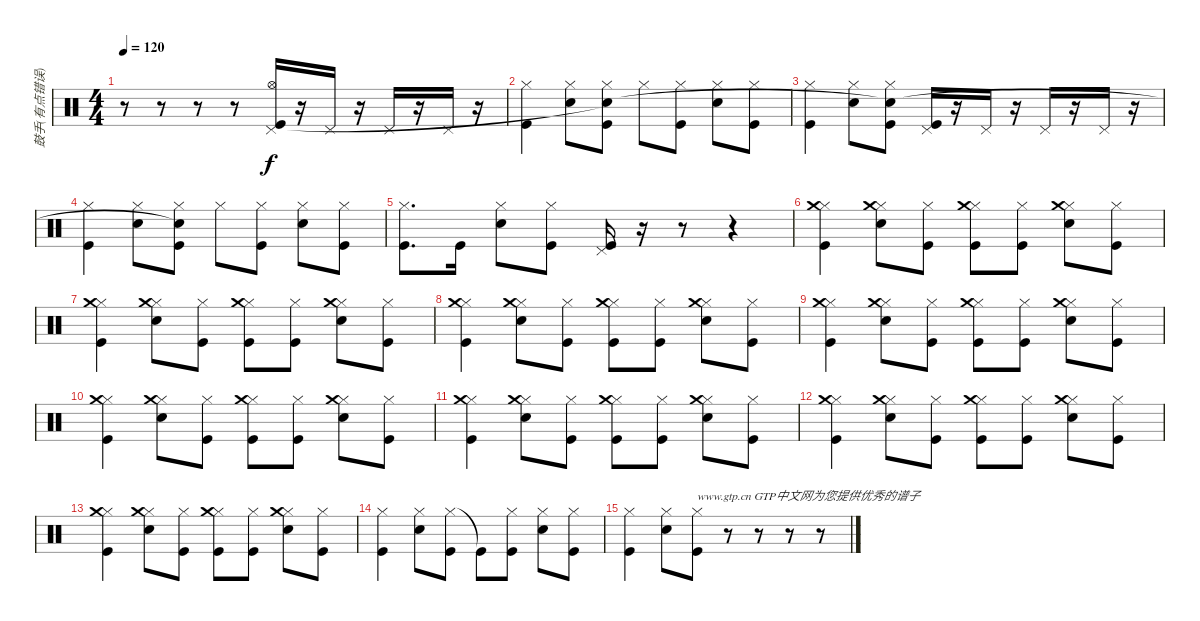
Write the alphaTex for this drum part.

\track ("鼓手(有点错误)" "鼓手(有点错误)") {instrument percussion}
\staff {score}
\articulation defaults
\ts (4 4)
\tempo 120
\clef neutral
\ks c
r.8{dy f} r.8 r.8 r.8 ("Pedal Hi-Hat (hit)" "Hi-Hat (open)" "Kick (hit)").16 r.16 "Pedal Hi-Hat (hit)".16 r.16 "Pedal Hi-Hat (hit)".16 r.16 "Pedal Hi-Hat (hit)".16 r.16 |
("Hi-Hat (closed)" "Kick (hit)").4 ("Hi-Hat (closed)" "Electric Snare (hit)").8 ("Hi-Hat (closed)" "Kick (hit)" "Snare (hit)"{t}).8 "Hi-Hat (closed)".8 ("Hi-Hat (closed)" "Kick (hit)").8 ("Hi-Hat (closed)" "Electric Snare (hit)").8 ("Hi-Hat (closed)" "Kick (hit)").8 |
("Hi-Hat (closed)" "Kick (hit)").4 ("Hi-Hat (closed)" "Electric Snare (hit)").8 ("Hi-Hat (closed)" "Kick (hit)" "Snare (hit)"{t}).8 ("Pedal Hi-Hat (hit)" "Kick (hit)").16 r.16 "Pedal Hi-Hat (hit)".16 r.16 "Pedal Hi-Hat (hit)".16 r.16 "Pedal Hi-Hat (hit)".16 r.16 |
("Hi-Hat (closed)" "Kick (hit)").4 ("Hi-Hat (closed)" "Electric Snare (hit)").8 ("Hi-Hat (closed)" "Kick (hit)" "Snare (hit)"{t}).8 "Hi-Hat (closed)".8 ("Hi-Hat (closed)" "Kick (hit)").8 ("Hi-Hat (closed)" "Electric Snare (hit)").8 ("Hi-Hat (closed)" "Kick (hit)").8 |
("Hi-Hat (closed)" "Kick (hit)").8{d} "Kick (hit)".16 ("Hi-Hat (closed)" "Electric Snare (hit)").8 ("Hi-Hat (closed)" "Kick (hit)").8 ("Pedal Hi-Hat (hit)" "Kick (hit)").16 r.16 r.8 r.4 |
("Hi-Hat (closed)" "Crash medium (hit)" "Kick (hit)").4 ("Hi-Hat (closed)" "Crash medium (hit)" "Electric Snare (hit)").8 ("Hi-Hat (closed)" "Kick (hit)").8 ("Hi-Hat (closed)" "Crash medium (hit)" "Kick (hit)").8 ("Hi-Hat (closed)" "Kick (hit)").8 ("Hi-Hat (closed)" "Crash medium (hit)" "Electric Snare (hit)").8 ("Hi-Hat (closed)" "Kick (hit)").8 |
("Hi-Hat (closed)" "Crash medium (hit)" "Kick (hit)").4 ("Hi-Hat (closed)" "Crash medium (hit)" "Electric Snare (hit)").8 ("Hi-Hat (closed)" "Kick (hit)").8 ("Hi-Hat (closed)" "Crash medium (hit)" "Kick (hit)").8 ("Hi-Hat (closed)" "Kick (hit)").8 ("Hi-Hat (closed)" "Crash medium (hit)" "Electric Snare (hit)").8 ("Hi-Hat (closed)" "Kick (hit)").8 |
("Hi-Hat (closed)" "Crash medium (hit)" "Kick (hit)").4 ("Hi-Hat (closed)" "Crash medium (hit)" "Electric Snare (hit)").8 ("Hi-Hat (closed)" "Kick (hit)").8 ("Hi-Hat (closed)" "Crash medium (hit)" "Kick (hit)").8 ("Hi-Hat (closed)" "Kick (hit)").8 ("Hi-Hat (closed)" "Crash medium (hit)" "Electric Snare (hit)").8 ("Hi-Hat (closed)" "Kick (hit)").8 |
("Hi-Hat (closed)" "Crash medium (hit)" "Kick (hit)").4 ("Hi-Hat (closed)" "Crash medium (hit)" "Electric Snare (hit)").8 ("Hi-Hat (closed)" "Kick (hit)").8 ("Hi-Hat (closed)" "Crash medium (hit)" "Kick (hit)").8 ("Hi-Hat (closed)" "Kick (hit)").8 ("Hi-Hat (closed)" "Crash medium (hit)" "Electric Snare (hit)").8 ("Hi-Hat (closed)" "Kick (hit)").8 |
("Hi-Hat (closed)" "Crash medium (hit)" "Kick (hit)").4 ("Hi-Hat (closed)" "Crash medium (hit)" "Electric Snare (hit)").8 ("Hi-Hat (closed)" "Kick (hit)").8 ("Hi-Hat (closed)" "Crash medium (hit)" "Kick (hit)").8 ("Hi-Hat (closed)" "Kick (hit)").8 ("Hi-Hat (closed)" "Crash medium (hit)" "Electric Snare (hit)").8 ("Hi-Hat (closed)" "Kick (hit)").8 |
("Hi-Hat (closed)" "Crash medium (hit)" "Kick (hit)").4 ("Hi-Hat (closed)" "Crash medium (hit)" "Electric Snare (hit)").8 ("Hi-Hat (closed)" "Kick (hit)").8 ("Hi-Hat (closed)" "Crash medium (hit)" "Kick (hit)").8 ("Hi-Hat (closed)" "Kick (hit)").8 ("Hi-Hat (closed)" "Crash medium (hit)" "Electric Snare (hit)").8 ("Hi-Hat (closed)" "Kick (hit)").8 |
("Hi-Hat (closed)" "Crash medium (hit)" "Kick (hit)").4 ("Hi-Hat (closed)" "Crash medium (hit)" "Electric Snare (hit)").8 ("Hi-Hat (closed)" "Kick (hit)").8 ("Hi-Hat (closed)" "Crash medium (hit)" "Kick (hit)").8 ("Hi-Hat (closed)" "Kick (hit)").8 ("Hi-Hat (closed)" "Crash medium (hit)" "Electric Snare (hit)").8 ("Hi-Hat (closed)" "Kick (hit)").8 |
("Hi-Hat (closed)" "Crash medium (hit)" "Kick (hit)").4 ("Hi-Hat (closed)" "Crash medium (hit)" "Electric Snare (hit)").8 ("Hi-Hat (closed)" "Kick (hit)").8 ("Hi-Hat (closed)" "Crash medium (hit)" "Kick (hit)").8 ("Hi-Hat (closed)" "Kick (hit)").8 ("Hi-Hat (closed)" "Crash medium (hit)" "Electric Snare (hit)").8 ("Hi-Hat (closed)" "Kick (hit)").8 |
("Hi-Hat (closed)" "Kick (hit)").4 ("Hi-Hat (closed)" "Electric Snare (hit)").8 ("Hi-Hat (closed)" "Kick (hit)").8 "Kick (hit)"{t}.8 ("Hi-Hat (closed)" "Kick (hit)").8 ("Hi-Hat (closed)" "Electric Snare (hit)").8 ("Hi-Hat (closed)" "Kick (hit)").8 |
("Hi-Hat (closed)" "Kick (hit)").4 ("Hi-Hat (closed)" "Electric Snare (hit)").8 ("Hi-Hat (closed)" "Kick (hit)").8{txt "www.gtp.cn GTP中文网为您提供优秀的谱子"} r.8 r.8 r.8 r.8
